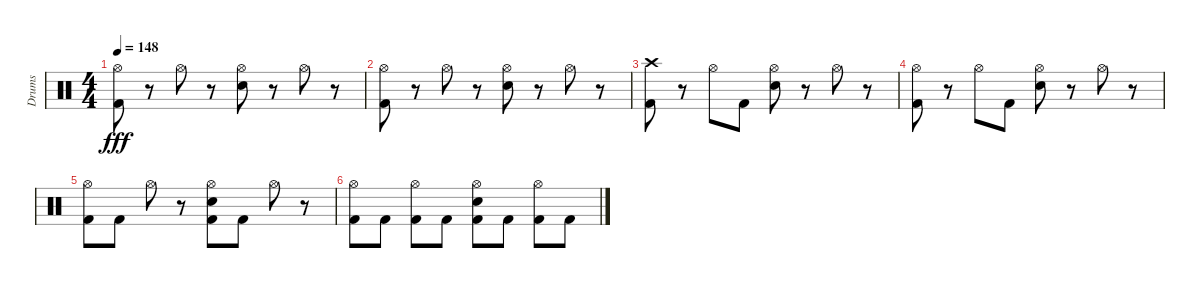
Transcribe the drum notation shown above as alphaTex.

\track ("Drums" "Drums") {instrument percussion}
\staff {score}
\articulation defaults
\ts (4 4)
\tempo 148
\clef neutral
\ks c
("Hi-Hat (open)" "Kick (hit) 2").8{dy fff} r.8 "Hi-Hat (open)".8 r.8 ("Hi-Hat (open)" "Electric Snare (hit)").8 r.8 "Hi-Hat (open)".8 r.8 |
("Hi-Hat (open)" "Kick (hit) 2").8 r.8 "Hi-Hat (open)".8 r.8 ("Hi-Hat (open)" "Electric Snare (hit)").8 r.8 "Hi-Hat (open)".8 r.8 |
("Crash high (hit)" "Kick (hit) 2").8{volume 0} r.8 "Hi-Hat (open)".8 "Kick (hit) 2".8 ("Hi-Hat (open)" "Electric Snare (hit)").8 r.8 "Hi-Hat (open)".8 r.8 |
("Hi-Hat (open)" "Kick (hit) 2").8 r.8 "Hi-Hat (open)".8 "Kick (hit) 2".8 ("Hi-Hat (open)" "Electric Snare (hit)").8 r.8 "Hi-Hat (open)".8 r.8 |
("Hi-Hat (open)" "Kick (hit) 2").8 "Kick (hit) 2".8 "Hi-Hat (open)".8 r.8 ("Hi-Hat (open)" "Electric Snare (hit)" "Kick (hit) 2").8 "Kick (hit) 2".8 "Hi-Hat (open)".8 r.8 |
("Hi-Hat (open)" "Kick (hit) 2").8 "Kick (hit) 2".8 ("Hi-Hat (open)" "Kick (hit) 2").8 "Kick (hit) 2".8 ("Hi-Hat (open)" "Electric Snare (hit)" "Kick (hit) 2").8 "Kick (hit) 2".8 ("Hi-Hat (open)" "Kick (hit) 2").8 "Kick (hit) 2".8
